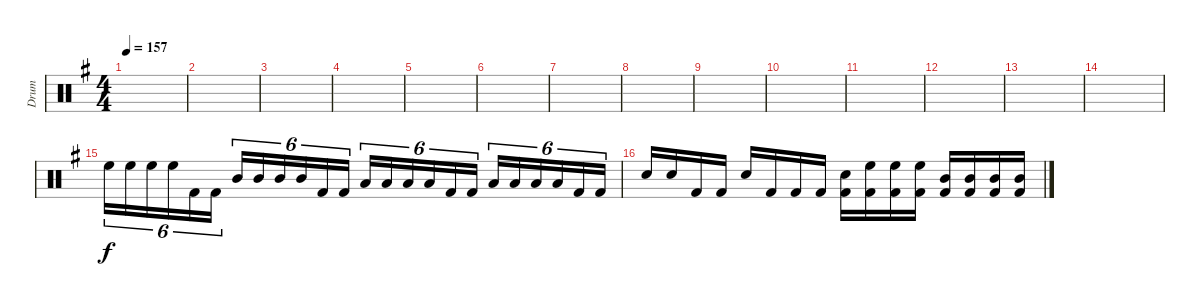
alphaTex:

\track ("Drum" "Drum") {instrument percussion}
\staff {score}
\articulation defaults
\ts (4 4)
\tempo 157
\clef neutral
\ks eminor
|
|
|
|
|
|
|
|
|
|
|
|
|
|
"High Floor Tom (hit)".16{tu (6 4)} "High Floor Tom (hit)".16{tu (6 4)} "High Floor Tom (hit)".16{tu (6 4)} "High Floor Tom (hit)".16{tu (6 4)} "Kick (hit) 2".16{tu (6 4)} "Kick (hit) 2".16{tu (6 4)} "Mid Tom (hit)".16{tu (6 4)} "Mid Tom (hit)".16{tu (6 4)} "Mid Tom (hit)".16{tu (6 4)} "Mid Tom (hit)".16{tu (6 4)} "Kick (hit) 2".16{tu (6 4)} "Kick (hit) 2".16{tu (6 4)} "Low Tom (hit)".16{tu (6 4)} "Low Tom (hit)".16{tu (6 4)} "Low Tom (hit)".16{tu (6 4)} "Low Tom (hit)".16{tu (6 4)} "Kick (hit) 2".16{tu (6 4)} "Kick (hit) 2".16{tu (6 4)} "Low Floor Tom (hit)".16{tu (6 4)} "Low Floor Tom (hit)".16{tu (6 4)} "Low Floor Tom (hit)".16{tu (6 4)} "Low Floor Tom (hit)".16{tu (6 4)} "Kick (hit) 2".16{tu (6 4)} "Kick (hit) 2".16{tu (6 4)} |
"Snare (hit) 2".16 "Snare (hit) 2".16 "Kick (hit) 2".16 "Kick (hit) 2".16 "Snare (hit) 2".16 "Kick (hit) 2".16 "Kick (hit) 2".16 "Kick (hit) 2".16 ("Kick (hit) 2" "Snare (hit) 2").16 ("Kick (hit) 2" "High Floor Tom (hit)").16 ("Kick (hit) 2" "High Floor Tom (hit)").16 ("Kick (hit) 2" "High Floor Tom (hit)").16 ("Kick (hit) 2" "Mid Tom (hit)").16 ("Kick (hit) 2" "Mid Tom (hit)").16 ("Kick (hit) 2" "Mid Tom (hit)").16 ("Kick (hit) 2" "Mid Tom (hit)").16
